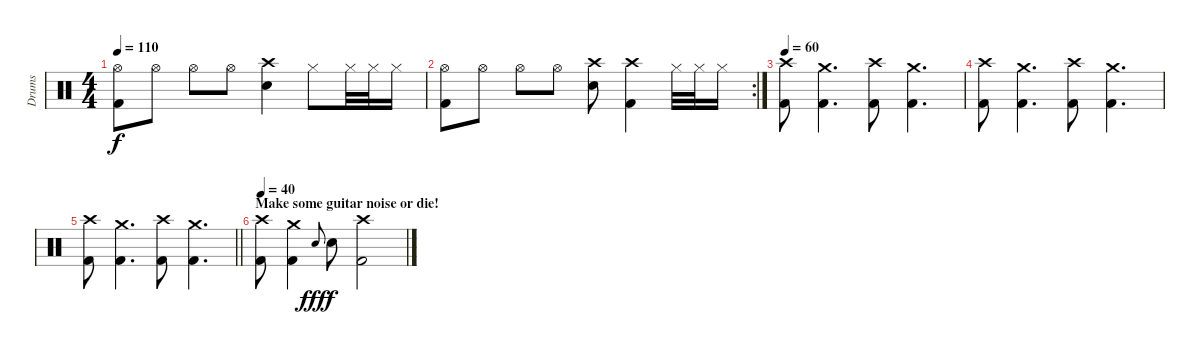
\track ("Drums" "Drums") {instrument percussion}
\staff {score}
\articulation defaults
\ts (4 4)
\tempo 110
\clef neutral
\ks c
("Hi-Hat (open)" "Kick (hit) 2").8{dy f} "Hi-Hat (open)".8 "Hi-Hat (open)".8 "Hi-Hat (open)".8 ("Snare (hit) 2" "Crash high (hit)").4 "Hi-Hat (closed)".8 "Hi-Hat (closed)".32 "Hi-Hat (closed)".32 "Hi-Hat (closed)".16 |
\rc 2
("Hi-Hat (open)" "Kick (hit) 2").8 "Hi-Hat (open)".8 "Hi-Hat (open)".8 "Hi-Hat (open)".8 ("Snare (hit) 2" "Crash high (hit)").8 ("Kick (hit) 2" "Crash high (hit)").4 "Hi-Hat (closed)".32 "Hi-Hat (closed)".32 "Hi-Hat (closed)".16 |
\tempo 60
("Kick (hit) 2" "Crash high (hit)").8 ("Crash medium (hit)" "Kick (hit) 2").4{d} ("Kick (hit) 2" "Crash high (hit)").8 ("Crash medium (hit)" "Kick (hit) 2").4{d} |
("Kick (hit) 2" "Crash high (hit)").8 ("Crash medium (hit)" "Kick (hit) 2").4{d} ("Kick (hit) 2" "Crash high (hit)").8 ("Crash medium (hit)" "Kick (hit) 2").4{d} |
\barLineRight lightlight
("Kick (hit) 2" "Crash high (hit)").8 ("Crash medium (hit)" "Kick (hit) 2").4{d} ("Kick (hit) 2" "Crash high (hit)").8 ("Crash medium (hit)" "Kick (hit) 2").4{d} |
\section ("" "Make some guitar noise or die!")
\tempo 40
("Kick (hit) 2" "Crash high (hit)").8 ("Crash medium (hit)" "Kick (hit) 2").4 "Snare (hit) 2".8{gr onbeat dy fff} "Snare (hit) 2".8{dy f} ("Kick (hit) 2" "Crash high (hit)").2
